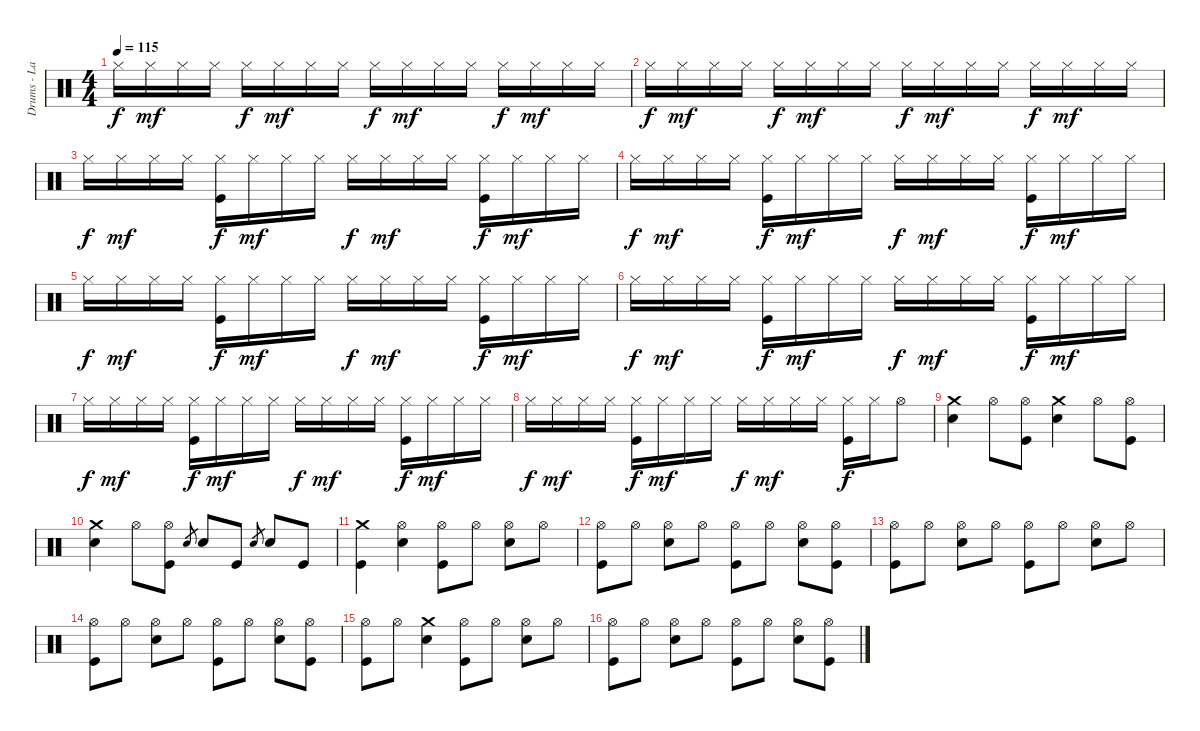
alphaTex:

\track ("Drums - Lars Ulrich" "Drums - La") {instrument percussion}
\staff {score}
\articulation defaults
\ts (4 4)
\tempo 115
\clef neutral
\ks c "Hi-Hat (closed)".16{dy f} "Hi-Hat (closed)".16{dy mf} "Hi-Hat (closed)".16 "Hi-Hat (closed)".16 "Hi-Hat (closed)".16{dy f} "Hi-Hat (closed)".16{dy mf} "Hi-Hat (closed)".16 "Hi-Hat (closed)".16 "Hi-Hat (closed)".16{dy f} "Hi-Hat (closed)".16{dy mf} "Hi-Hat (closed)".16 "Hi-Hat (closed)".16 "Hi-Hat (closed)".16{dy f} "Hi-Hat (closed)".16{dy mf} "Hi-Hat (closed)".16 "Hi-Hat (closed)".16
|
"Hi-Hat (closed)".16{dy f} "Hi-Hat (closed)".16{dy mf} "Hi-Hat (closed)".16 "Hi-Hat (closed)".16 "Hi-Hat (closed)".16{dy f} "Hi-Hat (closed)".16{dy mf} "Hi-Hat (closed)".16 "Hi-Hat (closed)".16 "Hi-Hat (closed)".16{dy f} "Hi-Hat (closed)".16{dy mf} "Hi-Hat (closed)".16 "Hi-Hat (closed)".16 "Hi-Hat (closed)".16{dy f} "Hi-Hat (closed)".16{dy mf} "Hi-Hat (closed)".16 "Hi-Hat (closed)".16 |
"Hi-Hat (closed)".16{dy f} "Hi-Hat (closed)".16{dy mf} "Hi-Hat (closed)".16 "Hi-Hat (closed)".16 ("Kick (hit)" "Hi-Hat (closed)").16{dy f} "Hi-Hat (closed)".16{dy mf} "Hi-Hat (closed)".16 "Hi-Hat (closed)".16 "Hi-Hat (closed)".16{dy f} "Hi-Hat (closed)".16{dy mf} "Hi-Hat (closed)".16 "Hi-Hat (closed)".16 ("Kick (hit)" "Hi-Hat (closed)").16{dy f} "Hi-Hat (closed)".16{dy mf} "Hi-Hat (closed)".16 "Hi-Hat (closed)".16 |
"Hi-Hat (closed)".16{dy f} "Hi-Hat (closed)".16{dy mf} "Hi-Hat (closed)".16 "Hi-Hat (closed)".16 ("Kick (hit)" "Hi-Hat (closed)").16{dy f} "Hi-Hat (closed)".16{dy mf} "Hi-Hat (closed)".16 "Hi-Hat (closed)".16 "Hi-Hat (closed)".16{dy f} "Hi-Hat (closed)".16{dy mf} "Hi-Hat (closed)".16 "Hi-Hat (closed)".16 ("Kick (hit)" "Hi-Hat (closed)").16{dy f} "Hi-Hat (closed)".16{dy mf} "Hi-Hat (closed)".16 "Hi-Hat (closed)".16 |
"Hi-Hat (closed)".16{dy f} "Hi-Hat (closed)".16{dy mf} "Hi-Hat (closed)".16 "Hi-Hat (closed)".16 ("Kick (hit)" "Hi-Hat (closed)").16{dy f} "Hi-Hat (closed)".16{dy mf} "Hi-Hat (closed)".16 "Hi-Hat (closed)".16 "Hi-Hat (closed)".16{dy f} "Hi-Hat (closed)".16{dy mf} "Hi-Hat (closed)".16 "Hi-Hat (closed)".16 ("Kick (hit)" "Hi-Hat (closed)").16{dy f} "Hi-Hat (closed)".16{dy mf} "Hi-Hat (closed)".16 "Hi-Hat (closed)".16 |
"Hi-Hat (closed)".16{dy f} "Hi-Hat (closed)".16{dy mf} "Hi-Hat (closed)".16 "Hi-Hat (closed)".16 ("Kick (hit)" "Hi-Hat (closed)").16{dy f} "Hi-Hat (closed)".16{dy mf} "Hi-Hat (closed)".16 "Hi-Hat (closed)".16 "Hi-Hat (closed)".16{dy f} "Hi-Hat (closed)".16{dy mf} "Hi-Hat (closed)".16 "Hi-Hat (closed)".16 ("Kick (hit)" "Hi-Hat (closed)").16{dy f} "Hi-Hat (closed)".16{dy mf} "Hi-Hat (closed)".16 "Hi-Hat (closed)".16 |
"Hi-Hat (closed)".16{dy f} "Hi-Hat (closed)".16{dy mf} "Hi-Hat (closed)".16 "Hi-Hat (closed)".16 ("Kick (hit)" "Hi-Hat (closed)").16{dy f} "Hi-Hat (closed)".16{dy mf} "Hi-Hat (closed)".16 "Hi-Hat (closed)".16 "Hi-Hat (closed)".16{dy f} "Hi-Hat (closed)".16{dy mf} "Hi-Hat (closed)".16 "Hi-Hat (closed)".16 ("Kick (hit)" "Hi-Hat (closed)").16{dy f} "Hi-Hat (closed)".16{dy mf} "Hi-Hat (closed)".16 "Hi-Hat (closed)".16 |
"Hi-Hat (closed)".16{dy f} "Hi-Hat (closed)".16{dy mf} "Hi-Hat (closed)".16 "Hi-Hat (closed)".16 ("Kick (hit)" "Hi-Hat (closed)").16{dy f} "Hi-Hat (closed)".16{dy mf} "Hi-Hat (closed)".16 "Hi-Hat (closed)".16 "Hi-Hat (closed)".16{dy f} "Hi-Hat (closed)".16{dy mf} "Hi-Hat (closed)".16 "Hi-Hat (closed)".16 ("Kick (hit)" "Hi-Hat (closed)").16{dy f} "Hi-Hat (closed)".16 "Hi-Hat (open)".8 |
("Electric Snare (hit)" "Crash medium (hit)").4 "Hi-Hat (open)".8 ("Kick (hit)" "Hi-Hat (open)").8 ("Electric Snare (hit)" "Crash medium (hit)").4 "Hi-Hat (open)".8 ("Kick (hit)" "Hi-Hat (open)").8 |
("Electric Snare (hit)" "Crash medium (hit)").4 "Hi-Hat (open)".8 ("Kick (hit)" "Hi-Hat (open)").8 "Electric Snare (hit)".8{gr} "Electric Snare (hit)".8 "Kick (hit)".8 "Electric Snare (hit)".8{gr} "Electric Snare (hit)".8 "Kick (hit)".8 |
("Kick (hit)" "Crash medium (hit)").4 ("Electric Snare (hit)" "Hi-Hat (open)").4 ("Kick (hit)" "Hi-Hat (open)").8 "Hi-Hat (open)".8 ("Electric Snare (hit)" "Hi-Hat (open)").8 "Hi-Hat (open)".8 |
("Kick (hit)" "Hi-Hat (open)").8 "Hi-Hat (open)".8 ("Electric Snare (hit)" "Hi-Hat (open)").8 "Hi-Hat (open)".8 ("Kick (hit)" "Hi-Hat (open)").8 "Hi-Hat (open)".8 ("Electric Snare (hit)" "Hi-Hat (open)").8 ("Kick (hit)" "Hi-Hat (open)").8 |
("Kick (hit)" "Hi-Hat (open)").8 "Hi-Hat (open)".8 ("Electric Snare (hit)" "Hi-Hat (open)").8 "Hi-Hat (open)".8 ("Kick (hit)" "Hi-Hat (open)").8 "Hi-Hat (open)".8 ("Electric Snare (hit)" "Hi-Hat (open)").8 "Hi-Hat (open)".8 |
("Kick (hit)" "Hi-Hat (open)").8 "Hi-Hat (open)".8 ("Electric Snare (hit)" "Hi-Hat (open)").8 "Hi-Hat (open)".8 ("Kick (hit)" "Hi-Hat (open)").8 "Hi-Hat (open)".8 ("Electric Snare (hit)" "Hi-Hat (open)").8 ("Kick (hit)" "Hi-Hat (open)").8 |
("Kick (hit)" "Hi-Hat (open)").8 "Hi-Hat (open)".8 ("Electric Snare (hit)" "Crash medium (hit)").4 ("Kick (hit)" "Hi-Hat (open)").8 "Hi-Hat (open)".8 ("Electric Snare (hit)" "Hi-Hat (open)").8 "Hi-Hat (open)".8 |
("Kick (hit)" "Hi-Hat (open)").8 "Hi-Hat (open)".8 ("Electric Snare (hit)" "Hi-Hat (open)").8 "Hi-Hat (open)".8 ("Kick (hit)" "Hi-Hat (open)").8 "Hi-Hat (open)".8 ("Electric Snare (hit)" "Hi-Hat (open)").8 ("Kick (hit)" "Hi-Hat (open)").8
